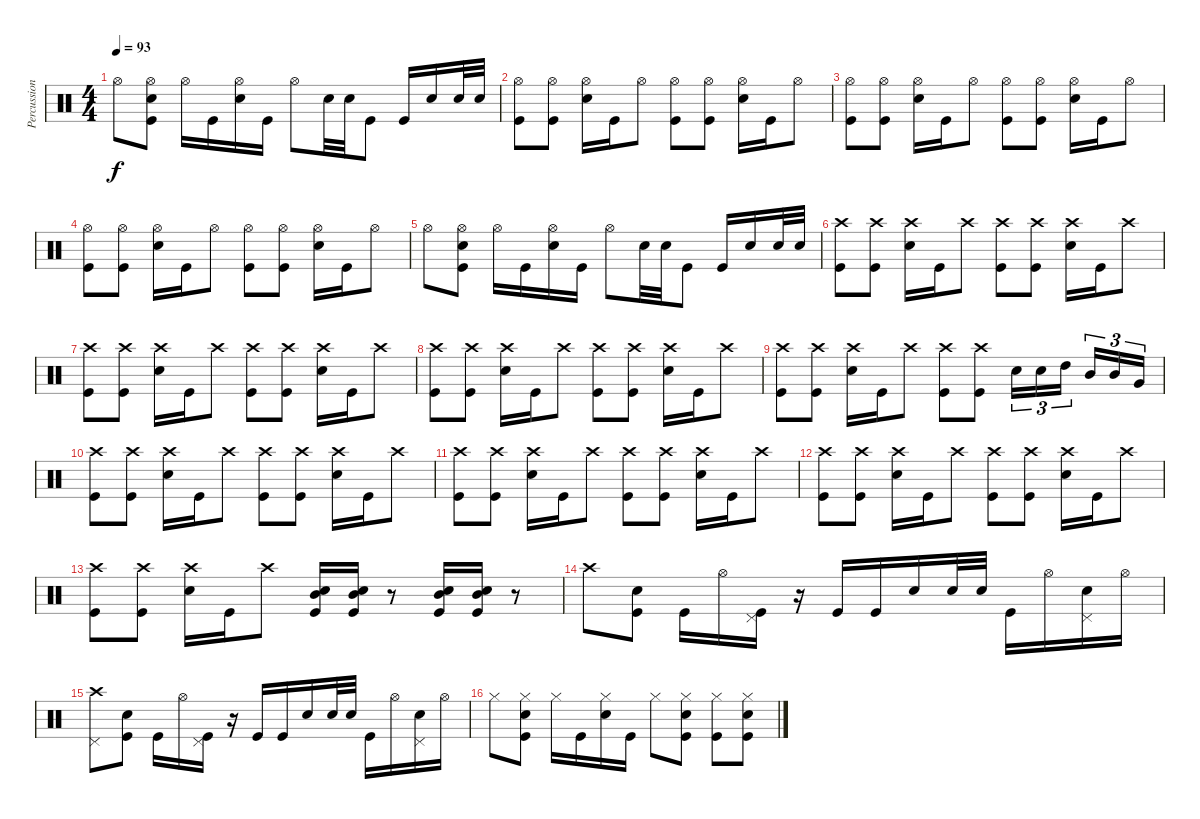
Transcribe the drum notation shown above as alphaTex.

\track ("Percussion" "Percussion") {instrument percussion}
\staff {score}
\articulation defaults
\ts (4 4)
\tempo 93
\clef neutral
\ks c "Hi-Hat (open)".8{dy f}
("Hi-Hat (open)" "Kick (hit)" "Snare (hit) 2").8 "Hi-Hat (open)".16 "Kick (hit)".16 ("Hi-Hat (open)" "Snare (hit) 2").16 "Kick (hit)".16 "Hi-Hat (open)".8 "Snare (hit) 2".32 "Snare (hit) 2".32 "Kick (hit)".8 "Kick (hit)".16 "Snare (hit) 2".16 "Snare (hit) 2".32 "Snare (hit) 2".32 |
("Hi-Hat (open)" "Kick (hit)").8 ("Hi-Hat (open)" "Kick (hit)").8 ("Hi-Hat (open)" "Snare (hit) 2").16 "Kick (hit)".16 "Hi-Hat (open)".8 ("Hi-Hat (open)" "Kick (hit)").8 ("Hi-Hat (open)" "Kick (hit)").8 ("Hi-Hat (open)" "Snare (hit) 2").16 "Kick (hit)".16 "Hi-Hat (open)".8 |
("Hi-Hat (open)" "Kick (hit)").8 ("Hi-Hat (open)" "Kick (hit)").8 ("Hi-Hat (open)" "Snare (hit) 2").16 "Kick (hit)".16 "Hi-Hat (open)".8 ("Hi-Hat (open)" "Kick (hit)").8 ("Hi-Hat (open)" "Kick (hit)").8 ("Hi-Hat (open)" "Snare (hit) 2").16 "Kick (hit)".16 "Hi-Hat (open)".8 |
("Hi-Hat (open)" "Kick (hit)").8 ("Hi-Hat (open)" "Kick (hit)").8 ("Hi-Hat (open)" "Snare (hit) 2").16 "Kick (hit)".16 "Hi-Hat (open)".8 ("Hi-Hat (open)" "Kick (hit)").8 ("Hi-Hat (open)" "Kick (hit)").8 ("Hi-Hat (open)" "Snare (hit) 2").16 "Kick (hit)".16 "Hi-Hat (open)".8 |
"Hi-Hat (open)".8 ("Hi-Hat (open)" "Kick (hit)" "Snare (hit) 2").8 "Hi-Hat (open)".16 "Kick (hit)".16 ("Hi-Hat (open)" "Snare (hit) 2").16 "Kick (hit)".16 "Hi-Hat (open)".8 "Snare (hit) 2".32 "Snare (hit) 2".32 "Kick (hit)".8 "Kick (hit)".16 "Snare (hit) 2".16 "Snare (hit) 2".32 "Snare (hit) 2".32 |
("Crash high (hit)" "Kick (hit)").8 ("Crash high (hit)" "Kick (hit)").8 ("Crash high (hit)" "Snare (hit) 2").16 "Kick (hit)".16 "Crash high (hit)".8 ("Crash high (hit)" "Kick (hit)").8 ("Crash high (hit)" "Kick (hit)").8 ("Crash high (hit)" "Snare (hit) 2").16 "Kick (hit)".16 "Crash high (hit)".8 |
("Crash high (hit)" "Kick (hit)").8 ("Crash high (hit)" "Kick (hit)").8 ("Crash high (hit)" "Snare (hit) 2").16 "Kick (hit)".16 "Crash high (hit)".8 ("Crash high (hit)" "Kick (hit)").8 ("Crash high (hit)" "Kick (hit)").8 ("Crash high (hit)" "Snare (hit) 2").16 "Kick (hit)".16 "Crash high (hit)".8 |
("Crash high (hit)" "Kick (hit)").8 ("Crash high (hit)" "Kick (hit)").8 ("Crash high (hit)" "Snare (hit) 2").16 "Kick (hit)".16 "Crash high (hit)".8 ("Crash high (hit)" "Kick (hit)").8 ("Crash high (hit)" "Kick (hit)").8 ("Crash high (hit)" "Snare (hit) 2").16 "Kick (hit)".16 "Crash high (hit)".8 |
("Crash high (hit)" "Kick (hit)").8 ("Crash high (hit)" "Kick (hit)").8 ("Crash high (hit)" "Snare (hit) 2").16 "Kick (hit)".16 "Crash high (hit)".8 ("Crash high (hit)" "Kick (hit)").8 ("Crash high (hit)" "Kick (hit)").8 "Snare (hit) 2".16{tu (3 2)} "Snare (hit) 2".16{tu (3 2)} "High Tom (hit)".16{tu (3 2) beam splitsecondary} "Mid Tom (hit)".16{tu (3 2)} "Mid Tom (hit)".16{tu (3 2)} "Very Low Tom (hit)".16{tu (3 2)} |
("Crash high (hit)" "Kick (hit)").8 ("Crash high (hit)" "Kick (hit)").8 ("Crash high (hit)" "Snare (hit) 2").16 "Kick (hit)".16 "Crash high (hit)".8 ("Crash high (hit)" "Kick (hit)").8 ("Crash high (hit)" "Kick (hit)").8 ("Crash high (hit)" "Snare (hit) 2").16 "Kick (hit)".16 "Crash high (hit)".8 |
("Crash high (hit)" "Kick (hit)").8 ("Crash high (hit)" "Kick (hit)").8 ("Crash high (hit)" "Snare (hit) 2").16 "Kick (hit)".16 "Crash high (hit)".8 ("Crash high (hit)" "Kick (hit)").8 ("Crash high (hit)" "Kick (hit)").8 ("Crash high (hit)" "Snare (hit) 2").16 "Kick (hit)".16 "Crash high (hit)".8 |
("Crash high (hit)" "Kick (hit)").8 ("Crash high (hit)" "Kick (hit)").8 ("Crash high (hit)" "Snare (hit) 2").16 "Kick (hit)".16 "Crash high (hit)".8 ("Crash high (hit)" "Kick (hit)").8 ("Crash high (hit)" "Kick (hit)").8 ("Crash high (hit)" "Snare (hit) 2").16 "Kick (hit)".16 "Crash high (hit)".8 |
("Crash high (hit)" "Kick (hit)").8 ("Crash high (hit)" "Kick (hit)").8 ("Crash high (hit)" "Snare (hit) 2").16 "Kick (hit)".16 "Crash high (hit)".8 ("Snare (hit) 2" "Mid Tom (hit)" "Kick (hit)").16 ("Snare (hit) 2" "Mid Tom (hit)" "Kick (hit)").16 r.8 ("Snare (hit) 2" "Mid Tom (hit)" "Kick (hit)").16 ("Snare (hit) 2" "Mid Tom (hit)" "Kick (hit)").16 r.8 |
"Crash high (hit)".8 ("Kick (hit)" "Snare (hit) 2").8 "Kick (hit)".16 "Hi-Hat (open)".16 ("Pedal Hi-Hat (hit)" "Kick (hit)").16 r.16 "Kick (hit)".16 "Kick (hit)".16 "Snare (hit) 2".16 "Snare (hit) 2".32 "Snare (hit) 2".32 "Kick (hit)".16 "Hi-Hat (open)".16 ("Pedal Hi-Hat (hit)" "Snare (hit) 2").16 "Hi-Hat (open)".16 |
("Crash high (hit)" "Pedal Hi-Hat (hit)").8 ("Kick (hit)" "Snare (hit) 2").8 "Kick (hit)".16 "Hi-Hat (open)".16 ("Pedal Hi-Hat (hit)" "Kick (hit)").16 r.16 "Kick (hit)".16 "Kick (hit)".16 "Snare (hit) 2".16 "Snare (hit) 2".32 "Snare (hit) 2".32 "Kick (hit)".16 "Hi-Hat (open)".16 ("Pedal Hi-Hat (hit)" "Snare (hit) 2").16 "Hi-Hat (open)".16 |
"Hi-Hat (closed)".8 ("Hi-Hat (closed)" "Kick (hit)" "Snare (hit) 2").8 "Hi-Hat (closed)".16 "Kick (hit)".16 ("Hi-Hat (closed)" "Snare (hit) 2").16 "Kick (hit)".16 "Hi-Hat (closed)".8 ("Hi-Hat (closed)" "Kick (hit)" "Snare (hit) 2").8 ("Hi-Hat (closed)" "Kick (hit)").8 ("Hi-Hat (closed)" "Kick (hit)" "Snare (hit) 2").8
